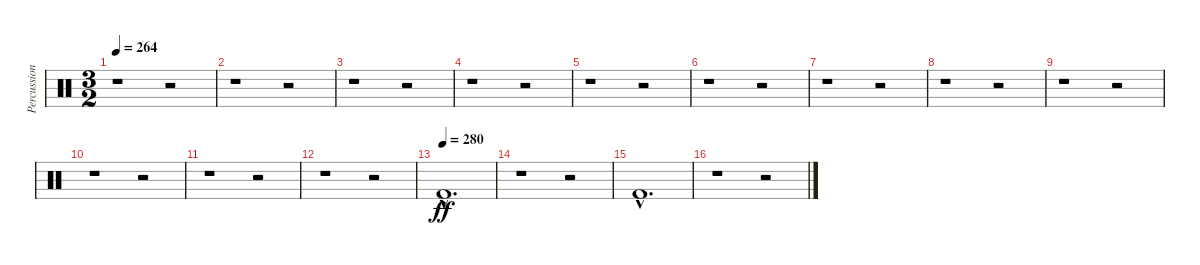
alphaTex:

\track ("Percussion" "Percussion") {instrument percussion}
\staff {score}
\articulation defaults
\ts (3 2)
\tempo 264
\clef neutral
\ks c
r.1{dy fff} r.2 |
r.1 r.2 |
r.1 r.2 |
r.1 r.2 |
r.1 r.2 |
r.1 r.2 |
r.1 r.2 |
r.1 r.2 |
r.1 r.2 |
r.1 r.2 |
r.1 r.2 |
r.1 r.2 |
\tempo (280)
"Kick (hit) 2"{hac}.1{d dy ff} |
r.1 r.2 |
"Kick (hit) 2"{hac}.1{d} |
r.1 r.2
